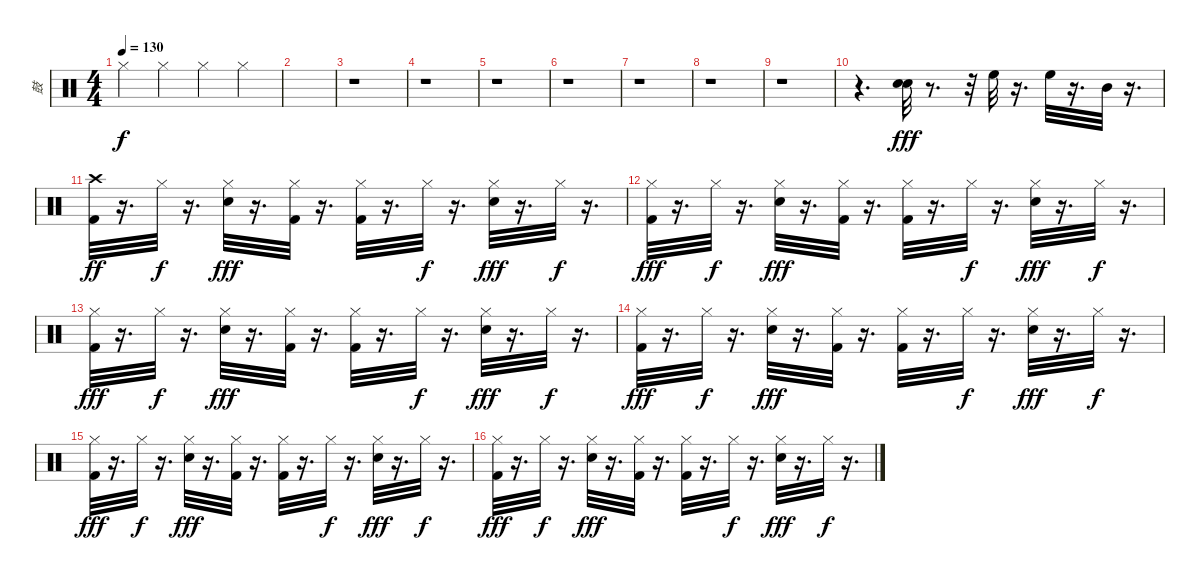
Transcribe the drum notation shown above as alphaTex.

\track ("鼓" "鼓") {instrument percussion}
\staff {score}
\articulation defaults
\ts (4 4)
\tempo 130
\clef neutral
\ks c "Hi-Hat (closed)".4{dy f} "Hi-Hat (closed)".4 "Hi-Hat (closed)".4 "Hi-Hat (closed)".4
|
|
r.1 |
r.1 |
r.1 |
r.1 |
r.1 |
r.1 |
r.1 |
r.4{d} ("Electric Snare (hit)" "Electric Snare (hit)").32{dy fff} r.8{d} r.32 "High Floor Tom (hit)".32 r.16{d} "High Floor Tom (hit)".32 r.16{d} "Mid Tom (hit)".32 r.16{d} |
("Kick (hit) 2" "Crash high (hit)").32{dy ff} r.16{d} "Hi-Hat (closed)".32{dy f} r.16{d} ("Hi-Hat (closed)" "Electric Snare (hit)").32{dy fff} r.16{d} ("Kick (hit) 2" "Hi-Hat (closed)").32 r.16{d} ("Kick (hit) 2" "Hi-Hat (closed)").32 r.16{d} "Hi-Hat (closed)".32{dy f} r.16{d} ("Hi-Hat (closed)" "Electric Snare (hit)").32{dy fff} r.16{d} "Hi-Hat (closed)".32{dy f} r.16{d} |
("Kick (hit) 2" "Hi-Hat (closed)").32{dy fff} r.16{d} "Hi-Hat (closed)".32{dy f} r.16{d} ("Hi-Hat (closed)" "Electric Snare (hit)").32{dy fff} r.16{d} ("Kick (hit) 2" "Hi-Hat (closed)").32 r.16{d} ("Kick (hit) 2" "Hi-Hat (closed)").32 r.16{d} "Hi-Hat (closed)".32{dy f} r.16{d} ("Hi-Hat (closed)" "Electric Snare (hit)").32{dy fff} r.16{d} "Hi-Hat (closed)".32{dy f} r.16{d} |
("Kick (hit) 2" "Hi-Hat (closed)").32{dy fff} r.16{d} "Hi-Hat (closed)".32{dy f} r.16{d} ("Hi-Hat (closed)" "Electric Snare (hit)").32{dy fff} r.16{d} ("Kick (hit) 2" "Hi-Hat (closed)").32 r.16{d} ("Kick (hit) 2" "Hi-Hat (closed)").32 r.16{d} "Hi-Hat (closed)".32{dy f} r.16{d} ("Hi-Hat (closed)" "Electric Snare (hit)").32{dy fff} r.16{d} "Hi-Hat (closed)".32{dy f} r.16{d} |
("Kick (hit) 2" "Hi-Hat (closed)").32{dy fff} r.16{d} "Hi-Hat (closed)".32{dy f} r.16{d} ("Hi-Hat (closed)" "Electric Snare (hit)").32{dy fff} r.16{d} ("Kick (hit) 2" "Hi-Hat (closed)").32 r.16{d} ("Kick (hit) 2" "Hi-Hat (closed)").32 r.16{d} "Hi-Hat (closed)".32{dy f} r.16{d} ("Hi-Hat (closed)" "Electric Snare (hit)").32{dy fff} r.16{d} "Hi-Hat (closed)".32{dy f} r.16{d} |
("Kick (hit) 2" "Hi-Hat (closed)").32{dy fff} r.16{d} "Hi-Hat (closed)".32{dy f} r.16{d} ("Hi-Hat (closed)" "Electric Snare (hit)").32{dy fff} r.16{d} ("Kick (hit) 2" "Hi-Hat (closed)").32 r.16{d} ("Kick (hit) 2" "Hi-Hat (closed)").32 r.16{d} "Hi-Hat (closed)".32{dy f} r.16{d} ("Hi-Hat (closed)" "Electric Snare (hit)").32{dy fff} r.16{d} "Hi-Hat (closed)".32{dy f} r.16{d} |
("Kick (hit) 2" "Hi-Hat (closed)").32{dy fff} r.16{d} "Hi-Hat (closed)".32{dy f} r.16{d} ("Hi-Hat (closed)" "Electric Snare (hit)").32{dy fff} r.16{d} ("Kick (hit) 2" "Hi-Hat (closed)").32 r.16{d} ("Kick (hit) 2" "Hi-Hat (closed)").32 r.16{d} "Hi-Hat (closed)".32{dy f} r.16{d} ("Hi-Hat (closed)" "Electric Snare (hit)").32{dy fff} r.16{d} "Hi-Hat (closed)".32{dy f} r.16{d}
